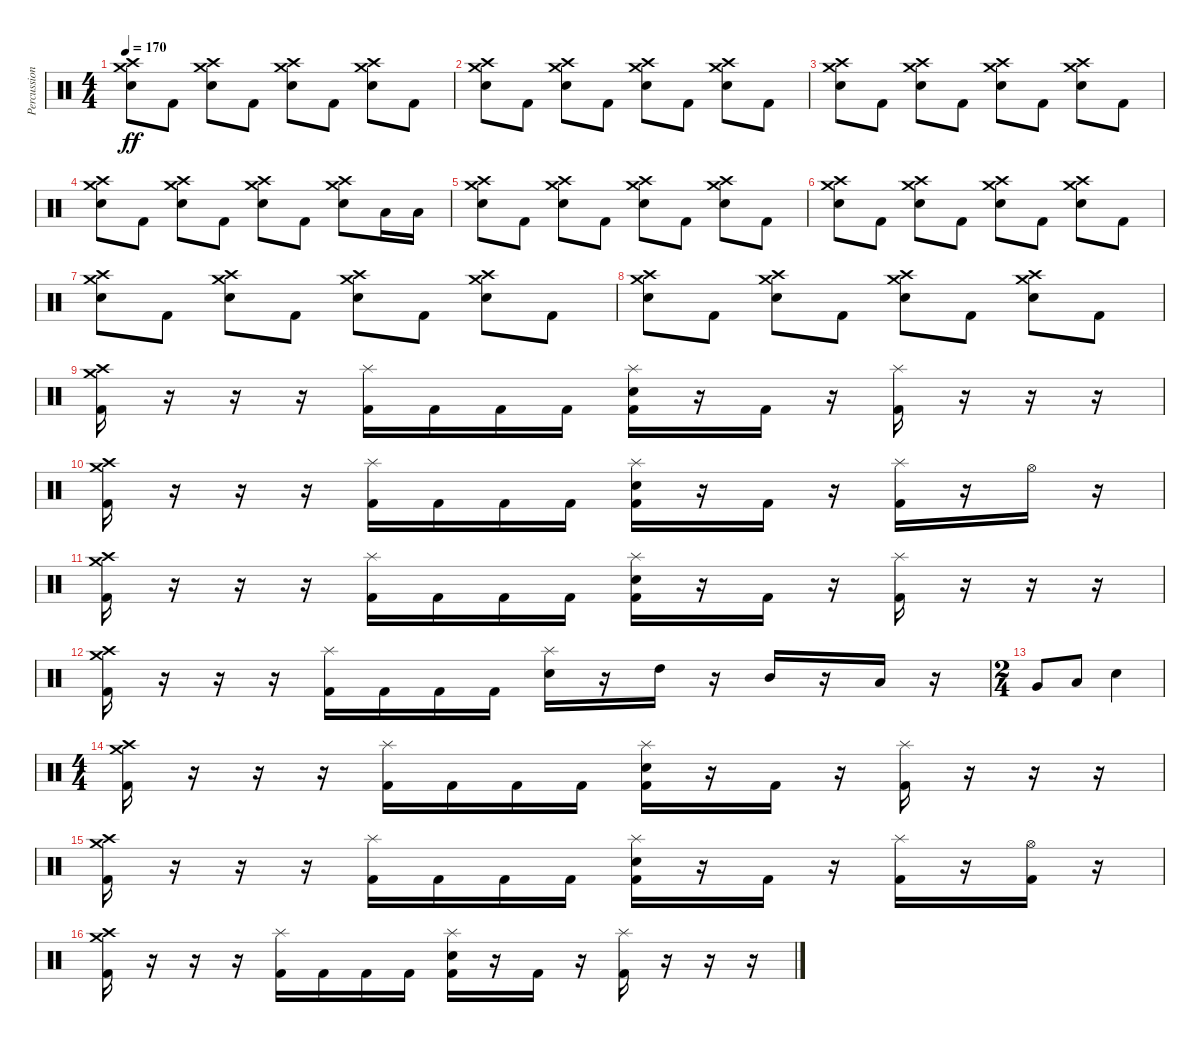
\track ("Percussion" "Percussion") {instrument percussion}
\staff {score}
\articulation defaults
\ts (4 4)
\tempo 170
\clef neutral
\ks c
("Electric Snare (hit)" "Crash medium (hit)" "Crash high (hit)").8{dy ff} "Kick (hit) 2".8 ("Electric Snare (hit)" "Crash medium (hit)" "Crash high (hit)").8 "Kick (hit) 2".8 ("Electric Snare (hit)" "Crash medium (hit)" "Crash high (hit)").8 "Kick (hit) 2".8 ("Electric Snare (hit)" "Crash medium (hit)" "Crash high (hit)").8 "Kick (hit) 2".8 |
("Electric Snare (hit)" "Crash medium (hit)" "Crash high (hit)").8 "Kick (hit) 2".8 ("Electric Snare (hit)" "Crash medium (hit)" "Crash high (hit)").8 "Kick (hit) 2".8 ("Electric Snare (hit)" "Crash medium (hit)" "Crash high (hit)").8 "Kick (hit) 2".8 ("Electric Snare (hit)" "Crash medium (hit)" "Crash high (hit)").8 "Kick (hit) 2".8 |
("Electric Snare (hit)" "Crash medium (hit)" "Crash high (hit)").8 "Kick (hit) 2".8 ("Electric Snare (hit)" "Crash medium (hit)" "Crash high (hit)").8 "Kick (hit) 2".8 ("Electric Snare (hit)" "Crash medium (hit)" "Crash high (hit)").8 "Kick (hit) 2".8 ("Electric Snare (hit)" "Crash medium (hit)" "Crash high (hit)").8 "Kick (hit) 2".8 |
("Electric Snare (hit)" "Crash medium (hit)" "Crash high (hit)").8 "Kick (hit) 2".8 ("Electric Snare (hit)" "Crash medium (hit)" "Crash high (hit)").8 "Kick (hit) 2".8 ("Electric Snare (hit)" "Crash medium (hit)" "Crash high (hit)").8 "Kick (hit) 2".8 ("Electric Snare (hit)" "Crash medium (hit)" "Crash high (hit)").8 "Low Tom (hit)".16 "Low Tom (hit)".16 |
("Electric Snare (hit)" "Crash medium (hit)" "Crash high (hit)").8 "Kick (hit) 2".8 ("Electric Snare (hit)" "Crash medium (hit)" "Crash high (hit)").8 "Kick (hit) 2".8 ("Electric Snare (hit)" "Crash medium (hit)" "Crash high (hit)").8 "Kick (hit) 2".8 ("Electric Snare (hit)" "Crash medium (hit)" "Crash high (hit)").8 "Kick (hit) 2".8 |
("Electric Snare (hit)" "Crash medium (hit)" "Crash high (hit)").8 "Kick (hit) 2".8 ("Electric Snare (hit)" "Crash medium (hit)" "Crash high (hit)").8 "Kick (hit) 2".8 ("Electric Snare (hit)" "Crash medium (hit)" "Crash high (hit)").8 "Kick (hit) 2".8 ("Electric Snare (hit)" "Crash medium (hit)" "Crash high (hit)").8 "Kick (hit) 2".8 |
("Electric Snare (hit)" "Crash medium (hit)" "Crash high (hit)").8 "Kick (hit) 2".8 ("Electric Snare (hit)" "Crash medium (hit)" "Crash high (hit)").8 "Kick (hit) 2".8 ("Electric Snare (hit)" "Crash medium (hit)" "Crash high (hit)").8 "Kick (hit) 2".8 ("Electric Snare (hit)" "Crash medium (hit)" "Crash high (hit)").8 "Kick (hit) 2".8 |
("Electric Snare (hit)" "Crash medium (hit)" "Crash high (hit)").8 "Kick (hit) 2".8 ("Electric Snare (hit)" "Crash medium (hit)" "Crash high (hit)").8 "Kick (hit) 2".8 ("Electric Snare (hit)" "Crash medium (hit)" "Crash high (hit)").8 "Kick (hit) 2".8 ("Electric Snare (hit)" "Crash medium (hit)" "Crash high (hit)").8 "Kick (hit) 2".8 |
("Kick (hit) 2" "Crash medium (hit)" "Crash high (hit)").16 r.16 r.16 r.16 ("Kick (hit) 2" "Splash (hit)").16 "Kick (hit) 2".16 "Kick (hit) 2".16 "Kick (hit) 2".16 ("Kick (hit) 2" "Electric Snare (hit)" "Splash (hit)").16 r.16 "Kick (hit) 2".16 r.16 ("Kick (hit) 2" "Splash (hit)").16 r.16 r.16 r.16 |
("Kick (hit) 2" "Crash medium (hit)" "Crash high (hit)").16 r.16 r.16 r.16 ("Kick (hit) 2" "Splash (hit)").16 "Kick (hit) 2".16 "Kick (hit) 2".16 "Kick (hit) 2".16 ("Kick (hit) 2" "Electric Snare (hit)" "Splash (hit)").16 r.16 "Kick (hit) 2".16 r.16 ("Kick (hit) 2" "Splash (hit)").16 r.16 "Hi-Hat (open)".16 r.16 |
("Kick (hit) 2" "Crash medium (hit)" "Crash high (hit)").16 r.16 r.16 r.16 ("Kick (hit) 2" "Splash (hit)").16 "Kick (hit) 2".16 "Kick (hit) 2".16 "Kick (hit) 2".16 ("Kick (hit) 2" "Electric Snare (hit)" "Splash (hit)").16 r.16 "Kick (hit) 2".16 r.16 ("Kick (hit) 2" "Splash (hit)").16 r.16 r.16 r.16 |
("Kick (hit) 2" "Crash medium (hit)" "Crash high (hit)").16 r.16 r.16 r.16 ("Kick (hit) 2" "Splash (hit)").16 "Kick (hit) 2".16 "Kick (hit) 2".16 "Kick (hit) 2".16 ("Electric Snare (hit)" "Splash (hit)").16 r.16 "High Tom (hit)".16 r.16 "Mid Tom (hit)".16 r.16 "Low Tom (hit)".16 r.16 |
\ts (2 4)
"Very Low Tom (hit)".8 "Low Floor Tom (hit)".8 "Electric Snare (hit)".4 |
\ts (4 4)
("Kick (hit) 2" "Crash medium (hit)" "Crash high (hit)").16 r.16 r.16 r.16 ("Kick (hit) 2" "Splash (hit)").16 "Kick (hit) 2".16 "Kick (hit) 2".16 "Kick (hit) 2".16 ("Kick (hit) 2" "Electric Snare (hit)" "Splash (hit)").16 r.16 "Kick (hit) 2".16 r.16 ("Kick (hit) 2" "Splash (hit)").16 r.16 r.16 r.16 |
("Kick (hit) 2" "Crash medium (hit)" "Crash high (hit)").16 r.16 r.16 r.16 ("Kick (hit) 2" "Splash (hit)").16 "Kick (hit) 2".16 "Kick (hit) 2".16 "Kick (hit) 2".16 ("Kick (hit) 2" "Electric Snare (hit)" "Splash (hit)").16 r.16 "Kick (hit) 2".16 r.16 ("Kick (hit) 2" "Splash (hit)").16 r.16 ("Kick (hit) 2" "Hi-Hat (open)").16 r.16 |
("Kick (hit) 2" "Crash medium (hit)" "Crash high (hit)").16 r.16 r.16 r.16 ("Kick (hit) 2" "Splash (hit)").16 "Kick (hit) 2".16 "Kick (hit) 2".16 "Kick (hit) 2".16 ("Kick (hit) 2" "Electric Snare (hit)" "Splash (hit)").16 r.16 "Kick (hit) 2".16 r.16 ("Kick (hit) 2" "Splash (hit)").16 r.16 r.16 r.16
